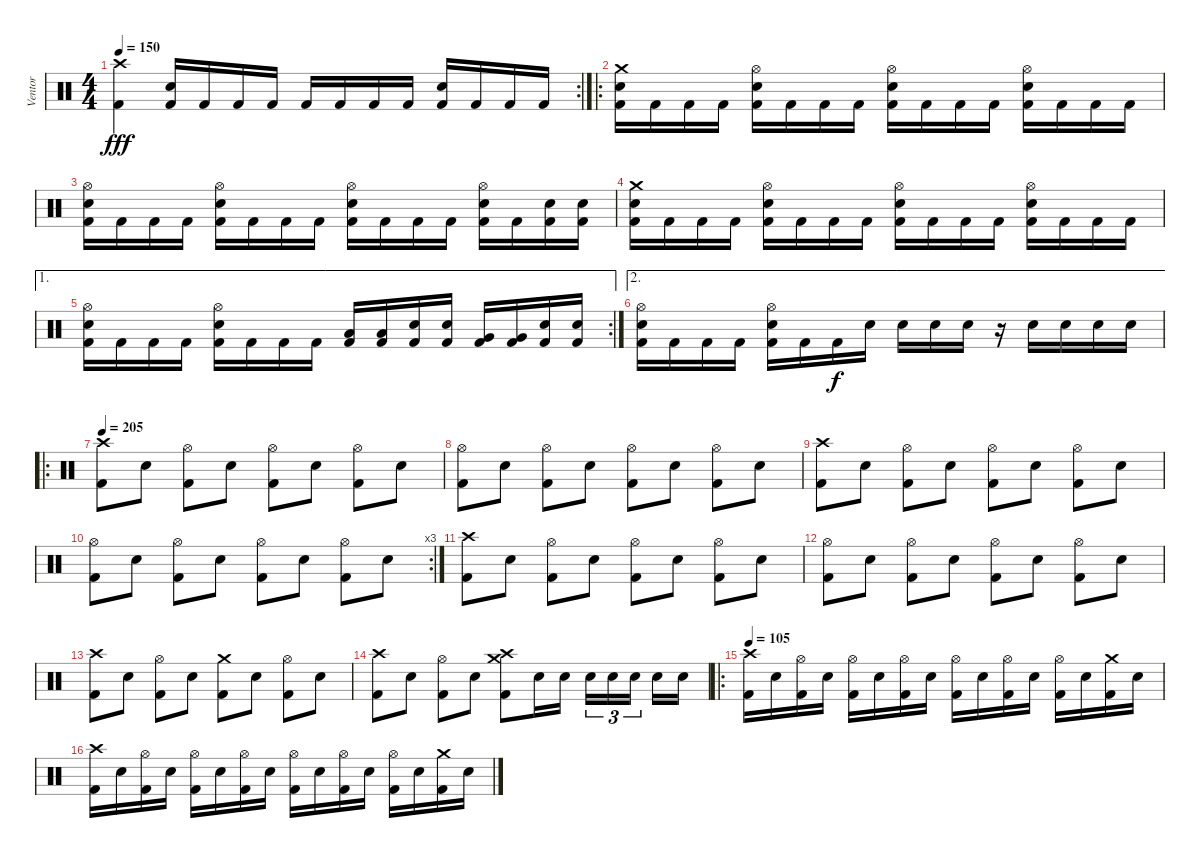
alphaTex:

\track ("Ventor" "Ventor") {instrument percussion}
\staff {score}
\articulation defaults
\rc 2
\ts (4 4)
\tempo 150
\clef neutral
\ks c
("Crash high (hit)" "Kick (hit) 2").4{dy fff} ("Electric Snare (hit)" "Kick (hit) 2").16 "Kick (hit) 2".16 "Kick (hit) 2".16 "Kick (hit) 2".16 "Kick (hit) 2".16 "Kick (hit) 2".16 "Kick (hit) 2".16 "Kick (hit) 2".16 ("Electric Snare (hit)" "Kick (hit) 2").16 "Kick (hit) 2".16 "Kick (hit) 2".16 "Kick (hit) 2".16 |
\ro
("Crash medium (hit)" "Electric Snare (hit)" "Kick (hit) 2").16 "Kick (hit) 2".16 "Kick (hit) 2".16 "Kick (hit) 2".16 ("Hi-Hat (open)" "Electric Snare (hit)" "Kick (hit) 2").16 "Kick (hit) 2".16 "Kick (hit) 2".16 "Kick (hit) 2".16 ("Hi-Hat (open)" "Electric Snare (hit)" "Kick (hit) 2").16 "Kick (hit) 2".16 "Kick (hit) 2".16 "Kick (hit) 2".16 ("Hi-Hat (open)" "Electric Snare (hit)" "Kick (hit) 2").16 "Kick (hit) 2".16 "Kick (hit) 2".16 "Kick (hit) 2".16 |
("Hi-Hat (open)" "Electric Snare (hit)" "Kick (hit) 2").16 "Kick (hit) 2".16 "Kick (hit) 2".16 "Kick (hit) 2".16 ("Hi-Hat (open)" "Electric Snare (hit)" "Kick (hit) 2").16 "Kick (hit) 2".16 "Kick (hit) 2".16 "Kick (hit) 2".16 ("Hi-Hat (open)" "Electric Snare (hit)" "Kick (hit) 2").16 "Kick (hit) 2".16 "Kick (hit) 2".16 "Kick (hit) 2".16 ("Hi-Hat (open)" "Electric Snare (hit)" "Kick (hit) 2").16 "Kick (hit) 2".16 ("Electric Snare (hit)" "Kick (hit) 2").16 ("Electric Snare (hit)" "Kick (hit) 2").16 |
("Crash medium (hit)" "Electric Snare (hit)" "Kick (hit) 2").16 "Kick (hit) 2".16 "Kick (hit) 2".16 "Kick (hit) 2".16 ("Hi-Hat (open)" "Electric Snare (hit)" "Kick (hit) 2").16 "Kick (hit) 2".16 "Kick (hit) 2".16 "Kick (hit) 2".16 ("Hi-Hat (open)" "Electric Snare (hit)" "Kick (hit) 2").16 "Kick (hit) 2".16 "Kick (hit) 2".16 "Kick (hit) 2".16 ("Hi-Hat (open)" "Electric Snare (hit)" "Kick (hit) 2").16 "Kick (hit) 2".16 "Kick (hit) 2".16 "Kick (hit) 2".16 |
\ae 1
\rc 2
("Hi-Hat (open)" "Electric Snare (hit)" "Kick (hit) 2").16 "Kick (hit) 2".16 "Kick (hit) 2".16 "Kick (hit) 2".16 ("Hi-Hat (open)" "Electric Snare (hit)" "Kick (hit) 2").16 "Kick (hit) 2".16 "Kick (hit) 2".16 "Kick (hit) 2".16 ("Low Tom (hit)" "Kick (hit) 2").16 ("Low Tom (hit)" "Kick (hit) 2").16 ("Electric Snare (hit)" "Kick (hit) 2").16 ("Electric Snare (hit)" "Kick (hit) 2").16 ("Very Low Tom (hit)" "Kick (hit) 2").16 ("Very Low Tom (hit)" "Kick (hit) 2").16 ("Electric Snare (hit)" "Kick (hit) 2").16 ("Electric Snare (hit)" "Kick (hit) 2").16 |
\ae 2
("Hi-Hat (open)" "Electric Snare (hit)" "Kick (hit) 2").16 "Kick (hit) 2".16 "Kick (hit) 2".16 "Kick (hit) 2".16 ("Hi-Hat (open)" "Electric Snare (hit)" "Kick (hit) 2").16 "Kick (hit) 2".16 "Kick (hit) 2".16{dy f} "Electric Snare (hit)".16 "Electric Snare (hit)".16 "Electric Snare (hit)".16 "Electric Snare (hit)".16 r.16 "Electric Snare (hit)".16 "Electric Snare (hit)".16 "Electric Snare (hit)".16 "Electric Snare (hit)".16 |
\ro
\tempo 210
\tempo 205
("Crash high (hit)" "Kick (hit) 2").8 "Electric Snare (hit)".8 ("Hi-Hat (open)" "Kick (hit) 2").8 "Electric Snare (hit)".8 ("Hi-Hat (open)" "Kick (hit) 2").8 "Electric Snare (hit)".8 ("Hi-Hat (open)" "Kick (hit) 2").8 "Electric Snare (hit)".8 |
("Hi-Hat (open)" "Kick (hit) 2").8 "Electric Snare (hit)".8 ("Hi-Hat (open)" "Kick (hit) 2").8 "Electric Snare (hit)".8 ("Hi-Hat (open)" "Kick (hit) 2").8 "Electric Snare (hit)".8 ("Hi-Hat (open)" "Kick (hit) 2").8 "Electric Snare (hit)".8 |
("Crash high (hit)" "Kick (hit) 2").8 "Electric Snare (hit)".8 ("Hi-Hat (open)" "Kick (hit) 2").8 "Electric Snare (hit)".8 ("Hi-Hat (open)" "Kick (hit) 2").8 "Electric Snare (hit)".8 ("Hi-Hat (open)" "Kick (hit) 2").8 "Electric Snare (hit)".8 |
\rc 3
("Hi-Hat (open)" "Kick (hit) 2").8 "Electric Snare (hit)".8 ("Hi-Hat (open)" "Kick (hit) 2").8 "Electric Snare (hit)".8 ("Hi-Hat (open)" "Kick (hit) 2").8 "Electric Snare (hit)".8 ("Hi-Hat (open)" "Kick (hit) 2").8 "Electric Snare (hit)".8 |
("Crash high (hit)" "Kick (hit) 2").8 "Electric Snare (hit)".8 ("Hi-Hat (open)" "Kick (hit) 2").8 "Electric Snare (hit)".8 ("Hi-Hat (open)" "Kick (hit) 2").8 "Electric Snare (hit)".8 ("Hi-Hat (open)" "Kick (hit) 2").8 "Electric Snare (hit)".8 |
("Hi-Hat (open)" "Kick (hit) 2").8 "Electric Snare (hit)".8 ("Hi-Hat (open)" "Kick (hit) 2").8 "Electric Snare (hit)".8 ("Hi-Hat (open)" "Kick (hit) 2").8 "Electric Snare (hit)".8 ("Hi-Hat (open)" "Kick (hit) 2").8 "Electric Snare (hit)".8 |
("Crash high (hit)" "Kick (hit) 2").8 "Electric Snare (hit)".8 ("Hi-Hat (open)" "Kick (hit) 2").8 "Electric Snare (hit)".8 ("Crash medium (hit)" "Kick (hit) 2").8 "Electric Snare (hit)".8 ("Hi-Hat (open)" "Kick (hit) 2").8 "Electric Snare (hit)".8 |
("Crash high (hit)" "Kick (hit) 2").8 "Electric Snare (hit)".8 ("Hi-Hat (open)" "Kick (hit) 2").8 "Electric Snare (hit)".8 ("Crash high (hit)" "Crash medium (hit)" "Kick (hit) 2").8 "Electric Snare (hit)".16 "Electric Snare (hit)".16 "Electric Snare (hit)".16{tu (3 2)} "Electric Snare (hit)".16{tu (3 2)} "Electric Snare (hit)".16{tu (3 2) beam splitsecondary} "Electric Snare (hit)".16 "Electric Snare (hit)".16 |
\ro
\tempo 105
("Crash high (hit)" "Kick (hit) 2").16 "Electric Snare (hit)".16 ("Hi-Hat (open)" "Kick (hit) 2").16 "Electric Snare (hit)".16 ("Hi-Hat (open)" "Kick (hit) 2").16 "Electric Snare (hit)".16 ("Hi-Hat (open)" "Kick (hit) 2").16 "Electric Snare (hit)".16 ("Hi-Hat (open)" "Kick (hit) 2").16 "Electric Snare (hit)".16 ("Hi-Hat (open)" "Kick (hit) 2").16 "Electric Snare (hit)".16 ("Hi-Hat (open)" "Kick (hit) 2").16 "Electric Snare (hit)".16 ("Crash medium (hit)" "Kick (hit) 2").16 "Electric Snare (hit)".16 |
("Crash high (hit)" "Kick (hit) 2").16 "Electric Snare (hit)".16 ("Hi-Hat (open)" "Kick (hit) 2").16 "Electric Snare (hit)".16 ("Hi-Hat (open)" "Kick (hit) 2").16 "Electric Snare (hit)".16 ("Hi-Hat (open)" "Kick (hit) 2").16 "Electric Snare (hit)".16 ("Hi-Hat (open)" "Kick (hit) 2").16 "Electric Snare (hit)".16 ("Hi-Hat (open)" "Kick (hit) 2").16 "Electric Snare (hit)".16 ("Hi-Hat (open)" "Kick (hit) 2").16 "Electric Snare (hit)".16 ("Crash medium (hit)" "Kick (hit) 2").16 "Electric Snare (hit)".16
